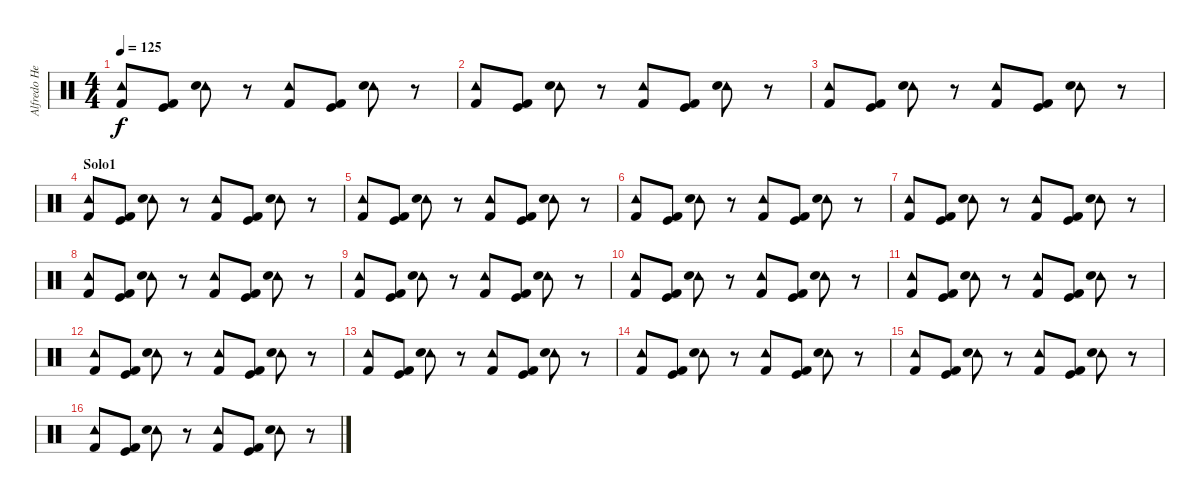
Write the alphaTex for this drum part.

\track ("Alfredo Hernandez (Drums)" "Alfredo He") {instrument percussion}
\staff {score}
\articulation defaults
\ts (4 4)
\section ("" "")
\tempo 125
\clef neutral
\ks c
("Tambourine (hit)" "Kick (hit) 2").8{dy f volume 13} ("Kick (hit)" "Kick (hit) 2").8 ("Tambourine (hit)" "Electric Snare (hit)").8 r.8 ("Tambourine (hit)" "Kick (hit) 2").8 ("Kick (hit)" "Kick (hit) 2").8 ("Tambourine (hit)" "Electric Snare (hit)").8 r.8 |
("Tambourine (hit)" "Kick (hit) 2").8 ("Kick (hit)" "Kick (hit) 2").8 ("Tambourine (hit)" "Electric Snare (hit)").8 r.8 ("Tambourine (hit)" "Kick (hit) 2").8 ("Kick (hit)" "Kick (hit) 2").8 ("Tambourine (hit)" "Electric Snare (hit)").8 r.8 |
("Tambourine (hit)" "Kick (hit) 2").8 ("Kick (hit)" "Kick (hit) 2").8 ("Tambourine (hit)" "Electric Snare (hit)").8 r.8 ("Tambourine (hit)" "Kick (hit) 2").8 ("Kick (hit)" "Kick (hit) 2").8 ("Tambourine (hit)" "Electric Snare (hit)").8 r.8 |
\section ("" "Solo1")
("Tambourine (hit)" "Kick (hit) 2").8 ("Kick (hit)" "Kick (hit) 2").8 ("Tambourine (hit)" "Electric Snare (hit)").8 r.8 ("Tambourine (hit)" "Kick (hit) 2").8 ("Kick (hit)" "Kick (hit) 2").8 ("Tambourine (hit)" "Electric Snare (hit)").8 r.8 |
("Tambourine (hit)" "Kick (hit) 2").8 ("Kick (hit)" "Kick (hit) 2").8 ("Tambourine (hit)" "Electric Snare (hit)").8 r.8 ("Tambourine (hit)" "Kick (hit) 2").8 ("Kick (hit)" "Kick (hit) 2").8 ("Tambourine (hit)" "Electric Snare (hit)").8 r.8 |
("Tambourine (hit)" "Kick (hit) 2").8 ("Kick (hit)" "Kick (hit) 2").8 ("Tambourine (hit)" "Electric Snare (hit)").8 r.8 ("Tambourine (hit)" "Kick (hit) 2").8 ("Kick (hit)" "Kick (hit) 2").8 ("Tambourine (hit)" "Electric Snare (hit)").8 r.8 |
("Tambourine (hit)" "Kick (hit) 2").8 ("Kick (hit)" "Kick (hit) 2").8 ("Tambourine (hit)" "Electric Snare (hit)").8 r.8 ("Tambourine (hit)" "Kick (hit) 2").8 ("Kick (hit)" "Kick (hit) 2").8 ("Tambourine (hit)" "Electric Snare (hit)").8 r.8 |
("Tambourine (hit)" "Kick (hit) 2").8 ("Kick (hit)" "Kick (hit) 2").8 ("Tambourine (hit)" "Electric Snare (hit)").8 r.8 ("Tambourine (hit)" "Kick (hit) 2").8 ("Kick (hit)" "Kick (hit) 2").8 ("Tambourine (hit)" "Electric Snare (hit)").8 r.8 |
("Tambourine (hit)" "Kick (hit) 2").8 ("Kick (hit)" "Kick (hit) 2").8 ("Tambourine (hit)" "Electric Snare (hit)").8 r.8 ("Tambourine (hit)" "Kick (hit) 2").8 ("Kick (hit)" "Kick (hit) 2").8 ("Tambourine (hit)" "Electric Snare (hit)").8 r.8 |
("Tambourine (hit)" "Kick (hit) 2").8 ("Kick (hit)" "Kick (hit) 2").8 ("Tambourine (hit)" "Electric Snare (hit)").8 r.8 ("Tambourine (hit)" "Kick (hit) 2").8 ("Kick (hit)" "Kick (hit) 2").8 ("Tambourine (hit)" "Electric Snare (hit)").8 r.8 |
("Tambourine (hit)" "Kick (hit) 2").8 ("Kick (hit)" "Kick (hit) 2").8 ("Tambourine (hit)" "Electric Snare (hit)").8 r.8 ("Tambourine (hit)" "Kick (hit) 2").8 ("Kick (hit)" "Kick (hit) 2").8 ("Tambourine (hit)" "Electric Snare (hit)").8 r.8 |
("Tambourine (hit)" "Kick (hit) 2").8 ("Kick (hit)" "Kick (hit) 2").8 ("Tambourine (hit)" "Electric Snare (hit)").8 r.8 ("Tambourine (hit)" "Kick (hit) 2").8 ("Kick (hit)" "Kick (hit) 2").8 ("Tambourine (hit)" "Electric Snare (hit)").8 r.8 |
("Tambourine (hit)" "Kick (hit) 2").8 ("Kick (hit)" "Kick (hit) 2").8 ("Tambourine (hit)" "Electric Snare (hit)").8 r.8 ("Tambourine (hit)" "Kick (hit) 2").8 ("Kick (hit)" "Kick (hit) 2").8 ("Tambourine (hit)" "Electric Snare (hit)").8 r.8 |
("Tambourine (hit)" "Kick (hit) 2").8 ("Kick (hit)" "Kick (hit) 2").8 ("Tambourine (hit)" "Electric Snare (hit)").8 r.8 ("Tambourine (hit)" "Kick (hit) 2").8 ("Kick (hit)" "Kick (hit) 2").8 ("Tambourine (hit)" "Electric Snare (hit)").8 r.8 |
("Tambourine (hit)" "Kick (hit) 2").8 ("Kick (hit)" "Kick (hit) 2").8 ("Tambourine (hit)" "Electric Snare (hit)").8 r.8 ("Tambourine (hit)" "Kick (hit) 2").8 ("Kick (hit)" "Kick (hit) 2").8 ("Tambourine (hit)" "Electric Snare (hit)").8 r.8 |
("Tambourine (hit)" "Kick (hit) 2").8 ("Kick (hit)" "Kick (hit) 2").8 ("Tambourine (hit)" "Electric Snare (hit)").8 r.8 ("Tambourine (hit)" "Kick (hit) 2").8 ("Kick (hit)" "Kick (hit) 2").8 ("Tambourine (hit)" "Electric Snare (hit)").8 r.8
